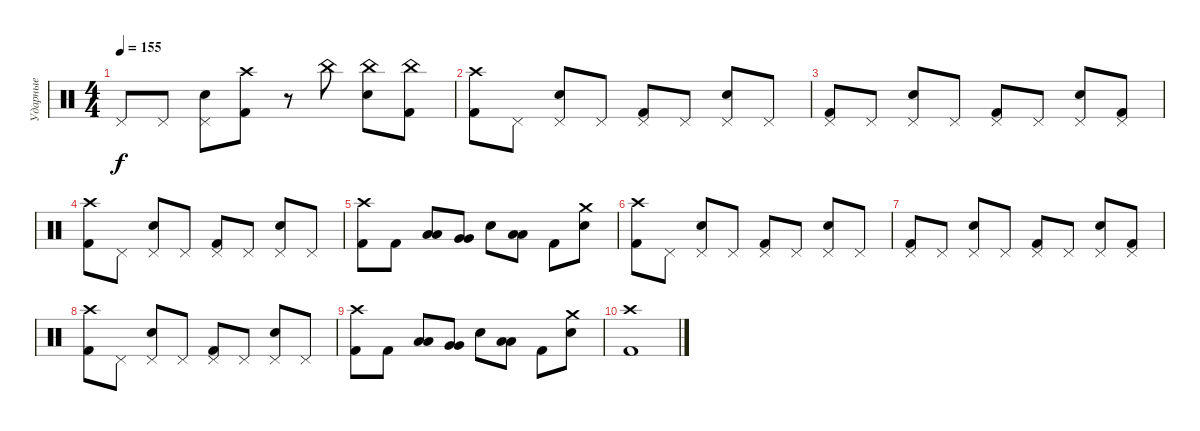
\track ("Ударные" "Ударные") {instrument percussion}
\staff {score}
\articulation defaults
\ts (4 4)
\tempo 155
\clef neutral
\ks c "Pedal Hi-Hat (hit)".8{dy f} "Pedal Hi-Hat (hit)".8
("Pedal Hi-Hat (hit)" "Snare (hit) 2").8 ("Crash high (hit)" "Kick (hit) 2").8 r.8 "China (hit)".8 ("China (hit)" "Snare (hit) 2").8 ("China (hit)" "Kick (hit) 2").8 |
("Crash high (hit)" "Kick (hit) 2").8 "Pedal Hi-Hat (hit)".8 ("Pedal Hi-Hat (hit)" "Snare (hit) 2").8 "Pedal Hi-Hat (hit)".8 ("Pedal Hi-Hat (hit)" "Kick (hit) 2").8 "Pedal Hi-Hat (hit)".8 ("Pedal Hi-Hat (hit)" "Snare (hit) 2").8 "Pedal Hi-Hat (hit)".8 |
("Pedal Hi-Hat (hit)" "Kick (hit) 2").8 "Pedal Hi-Hat (hit)".8 ("Pedal Hi-Hat (hit)" "Snare (hit) 2").8 "Pedal Hi-Hat (hit)".8 ("Pedal Hi-Hat (hit)" "Kick (hit) 2").8 "Pedal Hi-Hat (hit)".8 ("Pedal Hi-Hat (hit)" "Snare (hit) 2").8 ("Pedal Hi-Hat (hit)" "Kick (hit) 2").8 |
("Crash high (hit)" "Kick (hit) 2").8 "Pedal Hi-Hat (hit)".8 ("Pedal Hi-Hat (hit)" "Snare (hit) 2").8 "Pedal Hi-Hat (hit)".8 ("Pedal Hi-Hat (hit)" "Kick (hit) 2").8 "Pedal Hi-Hat (hit)".8 ("Pedal Hi-Hat (hit)" "Snare (hit) 2").8 "Pedal Hi-Hat (hit)".8 |
("Crash high (hit)" "Kick (hit) 2").8 "Kick (hit) 2".8 ("Low Tom (hit)" "Low Tom (hit)").8 ("Very Low Tom (hit)" "Very Low Tom (hit)").8 "Snare (hit) 2".8 ("Low Floor Tom (hit)" "Low Floor Tom (hit)").8 "Kick (hit) 2".8 ("Crash medium (hit)" "Snare (hit) 2").8 |
("Crash high (hit)" "Kick (hit) 2").8 "Pedal Hi-Hat (hit)".8 ("Pedal Hi-Hat (hit)" "Snare (hit) 2").8 "Pedal Hi-Hat (hit)".8 ("Pedal Hi-Hat (hit)" "Kick (hit) 2").8 "Pedal Hi-Hat (hit)".8 ("Pedal Hi-Hat (hit)" "Snare (hit) 2").8 "Pedal Hi-Hat (hit)".8 |
("Pedal Hi-Hat (hit)" "Kick (hit) 2").8 "Pedal Hi-Hat (hit)".8 ("Pedal Hi-Hat (hit)" "Snare (hit) 2").8 "Pedal Hi-Hat (hit)".8 ("Pedal Hi-Hat (hit)" "Kick (hit) 2").8 "Pedal Hi-Hat (hit)".8 ("Pedal Hi-Hat (hit)" "Snare (hit) 2").8 ("Pedal Hi-Hat (hit)" "Kick (hit) 2").8 |
("Crash high (hit)" "Kick (hit) 2").8 "Pedal Hi-Hat (hit)".8 ("Pedal Hi-Hat (hit)" "Snare (hit) 2").8 "Pedal Hi-Hat (hit)".8 ("Pedal Hi-Hat (hit)" "Kick (hit) 2").8 "Pedal Hi-Hat (hit)".8 ("Pedal Hi-Hat (hit)" "Snare (hit) 2").8 "Pedal Hi-Hat (hit)".8 |
("Crash high (hit)" "Kick (hit) 2").8 "Kick (hit) 2".8 ("Low Tom (hit)" "Low Tom (hit)").8 ("Very Low Tom (hit)" "Very Low Tom (hit)").8 "Snare (hit) 2".8 ("Low Floor Tom (hit)" "Low Floor Tom (hit)").8 "Kick (hit) 2".8 ("Crash medium (hit)" "Snare (hit) 2").8 |
("Crash high (hit)" "Kick (hit) 2").1
